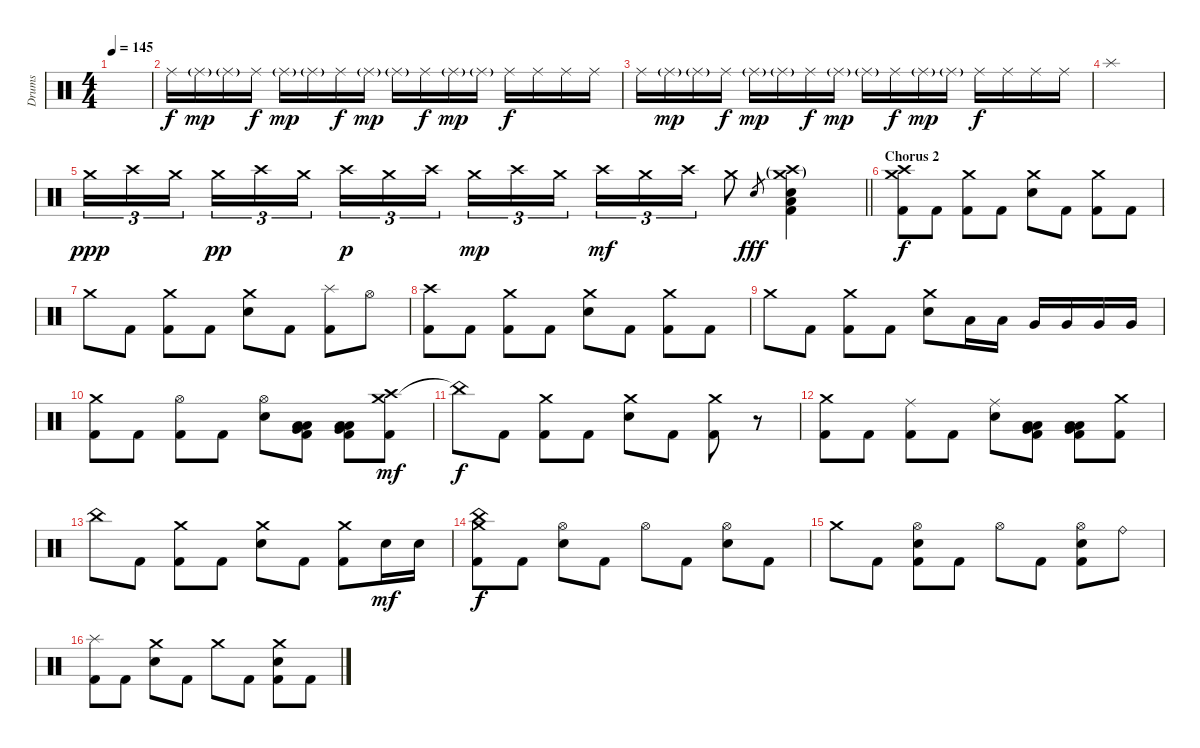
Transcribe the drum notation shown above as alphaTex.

\track ("Drums" "Drums") {instrument percussion}
\staff {score}
\articulation defaults
\ts (4 4)
\tempo 145
\clef neutral
\ks c
|
"Ride (middle)".16 "Ride (middle)"{g}.16{dy mp} "Ride (middle)"{g}.16 "Ride (middle)".16{dy f} "Ride (middle)"{g}.16{dy mp} "Ride (middle)"{g}.16 "Ride (middle)".16{dy f} "Ride (middle)"{g}.16{dy mp} "Ride (middle)"{g}.16 "Ride (middle)".16{dy f} "Ride (middle)"{g}.16{dy mp} "Ride (middle)"{g}.16 "Ride (middle)".16{dy f} "Ride (middle)".16 "Ride (middle)".16 "Ride (middle)".16 |
"Ride (middle)".16 "Ride (middle)"{g}.16{dy mp} "Ride (middle)"{g}.16 "Ride (middle)".16{dy f} "Ride (middle)"{g}.16{dy mp} "Ride (middle)"{g}.16 "Ride (middle)".16{dy f} "Ride (middle)"{g}.16{dy mp} "Ride (middle)"{g}.16 "Ride (middle)".16{dy f} "Ride (middle)"{g}.16{dy mp} "Ride (middle)"{g}.16 "Ride (middle)".16{dy f} "Ride (middle)".16 "Ride (middle)".16 "Ride (middle)".16 |
"Splash (hit)".1 |
\barLineRight lightlight "Crash medium (hit)".16{tu (3 2) dy ppp} "Crash high (hit)".16{tu (3 2)} "Crash medium (hit)".16{tu (3 2) beam splitsecondary} "Crash medium (hit)".16{tu (3 2) dy pp} "Crash high (hit)".16{tu (3 2)} "Crash medium (hit)".16{tu (3 2)} "Crash high (hit)".16{tu (3 2) dy p} "Crash medium (hit)".16{tu (3 2)} "Crash high (hit)".16{tu (3 2) beam splitsecondary} "Crash medium (hit)".16{tu (3 2) dy mp} "Crash high (hit)".16{tu (3 2)} "Crash medium (hit)".16{tu (3 2)} "Crash high (hit)".16{tu (3 2) dy mf} "Crash medium (hit)".16{tu (3 2)} "Crash high (hit)".16{tu (3 2)} "Crash medium (hit)".8 "Electric Snare (hit)".8{gr dy fff}
("Crash medium (hit)"{g} "Crash high (hit)"{g} "Low Floor Tom (hit)" "Electric Snare (hit)" "Kick (hit) 2").4 |
\section ("" "Chorus 2")
("Crash medium (hit)" "Crash high (hit)" "Kick (hit) 2").8{dy f} "Kick (hit) 2".8 ("Crash medium (hit)" "Kick (hit) 2").8 "Kick (hit) 2".8 ("Crash medium (hit)" "Electric Snare (hit)").8 "Kick (hit) 2".8 ("Crash medium (hit)" "Kick (hit) 2").8 "Kick (hit) 2".8 |
"Crash medium (hit)".8 "Kick (hit) 2".8 ("Crash medium (hit)" "Kick (hit) 2").8 "Kick (hit) 2".8 ("Crash medium (hit)" "Electric Snare (hit)").8 "Kick (hit) 2".8 ("Splash (hit)" "Kick (hit) 2").8 "Hi-Hat (open)".8 |
("Crash high (hit)" "Kick (hit) 2").8 "Kick (hit) 2".8 ("Crash medium (hit)" "Kick (hit) 2").8 "Kick (hit) 2".8 ("Crash medium (hit)" "Electric Snare (hit)").8 "Kick (hit) 2".8 ("Crash medium (hit)" "Kick (hit) 2").8 "Kick (hit) 2".8 |
"Crash medium (hit)".8 "Kick (hit) 2".8 ("Crash medium (hit)" "Kick (hit) 2").8 "Kick (hit) 2".8 ("Crash medium (hit)" "Electric Snare (hit)").8 "Low Tom (hit)".16 "Low Tom (hit)".16 "Very Low Tom (hit)".16 "Very Low Tom (hit)".16 "Very Low Tom (hit)".16 "Very Low Tom (hit)".16 |
("Crash medium (hit)" "Kick (hit) 2").8 "Kick (hit) 2".8 ("Hi-Hat (open)" "Kick (hit) 2").8 "Kick (hit) 2".8 ("Hi-Hat (open)" "Electric Snare (hit)").8 ("Very Low Tom (hit)" "Low Tom (hit)" "Low Floor Tom (hit)" "Kick (hit) 2").8 ("Very Low Tom (hit)" "Low Tom (hit)" "Low Floor Tom (hit)" "Kick (hit) 2").8 ("Crash medium (hit)" "Crash high (hit)" "Kick (hit) 2").8{dy mf} |
"China (hit)"{t}.8{dy f} "Kick (hit) 2".8 ("Crash medium (hit)" "Kick (hit) 2").8 "Kick (hit) 2".8 ("Crash medium (hit)" "Electric Snare (hit)").8 "Kick (hit) 2".8 ("Crash medium (hit)" "Kick (hit) 2").8 r.8 |
("Crash medium (hit)" "Kick (hit) 2").8 "Kick (hit) 2".8 ("Ride (middle)" "Kick (hit) 2").8 "Kick (hit) 2".8 ("Ride (middle)" "Electric Snare (hit)").8 ("Very Low Tom (hit)" "Low Tom (hit)" "Low Floor Tom (hit)" "Kick (hit) 2").8 ("Very Low Tom (hit)" "Low Tom (hit)" "Low Floor Tom (hit)" "Kick (hit) 2").8 ("Crash medium (hit)" "Kick (hit) 2").8 |
"China (hit)".8 "Kick (hit) 2".8 ("Crash medium (hit)" "Kick (hit) 2").8 "Kick (hit) 2".8 ("Crash medium (hit)" "Electric Snare (hit)").8 "Kick (hit) 2".8 ("Crash medium (hit)" "Kick (hit) 2").8 "Electric Snare (hit)".16{dy mf} "Electric Snare (hit)".16 |
("Crash medium (hit)" "China (hit)" "Kick (hit) 2").8{dy f} "Kick (hit) 2".8 ("Hi-Hat (open)" "Electric Snare (hit)").8 "Kick (hit) 2".8 "Hi-Hat (open)".8 "Kick (hit) 2".8 ("Hi-Hat (open)" "Electric Snare (hit)").8 "Kick (hit) 2".8 |
"Crash medium (hit)".8 "Kick (hit) 2".8 ("Hi-Hat (open)" "Electric Snare (hit)" "Kick (hit) 2").8 "Kick (hit) 2".8 "Hi-Hat (open)".8 "Kick (hit) 2".8 ("Hi-Hat (open)" "Electric Snare (hit)" "Kick (hit) 2").8 "Ride (bell)".8 |
("Splash (hit)" "Kick (hit) 2").8 "Kick (hit) 2".8 ("Crash medium (hit)" "Electric Snare (hit)").8 "Kick (hit) 2".8 "Crash medium (hit)".8 "Kick (hit) 2".8 ("Crash medium (hit)" "Electric Snare (hit)" "Kick (hit) 2").8 "Kick (hit) 2".8
